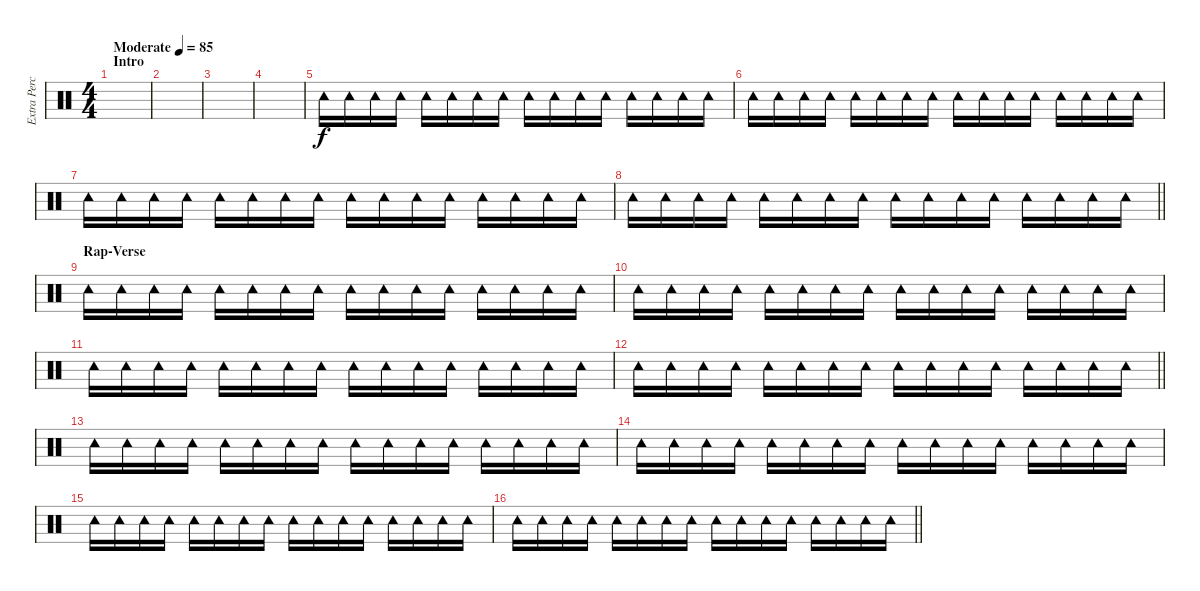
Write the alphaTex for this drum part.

\track ("Extra Percussion" "Extra Perc") {instrument percussion}
\staff {score}
\articulation defaults
\ts (4 4)
\section ("" "Intro")
\tempo (85 "Moderate")
\clef neutral
\ks c
|
|
|
|
"Tambourine (hit)".16 "Tambourine (hit)".16 "Tambourine (hit)".16 "Tambourine (hit)".16 "Tambourine (hit)".16 "Tambourine (hit)".16 "Tambourine (hit)".16 "Tambourine (hit)".16 "Tambourine (hit)".16 "Tambourine (hit)".16 "Tambourine (hit)".16 "Tambourine (hit)".16 "Tambourine (hit)".16 "Tambourine (hit)".16 "Tambourine (hit)".16 "Tambourine (hit)".16 |
"Tambourine (hit)".16 "Tambourine (hit)".16 "Tambourine (hit)".16 "Tambourine (hit)".16 "Tambourine (hit)".16 "Tambourine (hit)".16 "Tambourine (hit)".16 "Tambourine (hit)".16 "Tambourine (hit)".16 "Tambourine (hit)".16 "Tambourine (hit)".16 "Tambourine (hit)".16 "Tambourine (hit)".16 "Tambourine (hit)".16 "Tambourine (hit)".16 "Tambourine (hit)".16 |
"Tambourine (hit)".16 "Tambourine (hit)".16 "Tambourine (hit)".16 "Tambourine (hit)".16 "Tambourine (hit)".16 "Tambourine (hit)".16 "Tambourine (hit)".16 "Tambourine (hit)".16 "Tambourine (hit)".16 "Tambourine (hit)".16 "Tambourine (hit)".16 "Tambourine (hit)".16 "Tambourine (hit)".16 "Tambourine (hit)".16 "Tambourine (hit)".16 "Tambourine (hit)".16 |
\barLineRight lightlight "Tambourine (hit)".16 "Tambourine (hit)".16 "Tambourine (hit)".16 "Tambourine (hit)".16 "Tambourine (hit)".16 "Tambourine (hit)".16 "Tambourine (hit)".16 "Tambourine (hit)".16 "Tambourine (hit)".16 "Tambourine (hit)".16 "Tambourine (hit)".16 "Tambourine (hit)".16 "Tambourine (hit)".16 "Tambourine (hit)".16 "Tambourine (hit)".16 "Tambourine (hit)".16
|
\section ("" "Rap-Verse")
"Tambourine (hit)".16 "Tambourine (hit)".16 "Tambourine (hit)".16 "Tambourine (hit)".16 "Tambourine (hit)".16 "Tambourine (hit)".16 "Tambourine (hit)".16 "Tambourine (hit)".16 "Tambourine (hit)".16 "Tambourine (hit)".16 "Tambourine (hit)".16 "Tambourine (hit)".16 "Tambourine (hit)".16 "Tambourine (hit)".16 "Tambourine (hit)".16 "Tambourine (hit)".16 |
"Tambourine (hit)".16 "Tambourine (hit)".16 "Tambourine (hit)".16 "Tambourine (hit)".16 "Tambourine (hit)".16 "Tambourine (hit)".16 "Tambourine (hit)".16 "Tambourine (hit)".16 "Tambourine (hit)".16 "Tambourine (hit)".16 "Tambourine (hit)".16 "Tambourine (hit)".16 "Tambourine (hit)".16 "Tambourine (hit)".16 "Tambourine (hit)".16 "Tambourine (hit)".16 |
"Tambourine (hit)".16 "Tambourine (hit)".16 "Tambourine (hit)".16 "Tambourine (hit)".16 "Tambourine (hit)".16 "Tambourine (hit)".16 "Tambourine (hit)".16 "Tambourine (hit)".16 "Tambourine (hit)".16 "Tambourine (hit)".16 "Tambourine (hit)".16 "Tambourine (hit)".16 "Tambourine (hit)".16 "Tambourine (hit)".16 "Tambourine (hit)".16 "Tambourine (hit)".16 |
\barLineRight lightlight "Tambourine (hit)".16 "Tambourine (hit)".16 "Tambourine (hit)".16 "Tambourine (hit)".16 "Tambourine (hit)".16 "Tambourine (hit)".16 "Tambourine (hit)".16 "Tambourine (hit)".16 "Tambourine (hit)".16 "Tambourine (hit)".16 "Tambourine (hit)".16 "Tambourine (hit)".16 "Tambourine (hit)".16 "Tambourine (hit)".16 "Tambourine (hit)".16 "Tambourine (hit)".16
|
"Tambourine (hit)".16 "Tambourine (hit)".16 "Tambourine (hit)".16 "Tambourine (hit)".16 "Tambourine (hit)".16 "Tambourine (hit)".16 "Tambourine (hit)".16 "Tambourine (hit)".16 "Tambourine (hit)".16 "Tambourine (hit)".16 "Tambourine (hit)".16 "Tambourine (hit)".16 "Tambourine (hit)".16 "Tambourine (hit)".16 "Tambourine (hit)".16 "Tambourine (hit)".16 |
"Tambourine (hit)".16 "Tambourine (hit)".16 "Tambourine (hit)".16 "Tambourine (hit)".16 "Tambourine (hit)".16 "Tambourine (hit)".16 "Tambourine (hit)".16 "Tambourine (hit)".16 "Tambourine (hit)".16 "Tambourine (hit)".16 "Tambourine (hit)".16 "Tambourine (hit)".16 "Tambourine (hit)".16 "Tambourine (hit)".16 "Tambourine (hit)".16 "Tambourine (hit)".16 |
"Tambourine (hit)".16 "Tambourine (hit)".16 "Tambourine (hit)".16 "Tambourine (hit)".16 "Tambourine (hit)".16 "Tambourine (hit)".16 "Tambourine (hit)".16 "Tambourine (hit)".16 "Tambourine (hit)".16 "Tambourine (hit)".16 "Tambourine (hit)".16 "Tambourine (hit)".16 "Tambourine (hit)".16 "Tambourine (hit)".16 "Tambourine (hit)".16 "Tambourine (hit)".16 |
\barLineRight lightlight "Tambourine (hit)".16 "Tambourine (hit)".16 "Tambourine (hit)".16 "Tambourine (hit)".16 "Tambourine (hit)".16 "Tambourine (hit)".16 "Tambourine (hit)".16 "Tambourine (hit)".16 "Tambourine (hit)".16 "Tambourine (hit)".16 "Tambourine (hit)".16 "Tambourine (hit)".16 "Tambourine (hit)".16 "Tambourine (hit)".16 "Tambourine (hit)".16 "Tambourine (hit)".16
